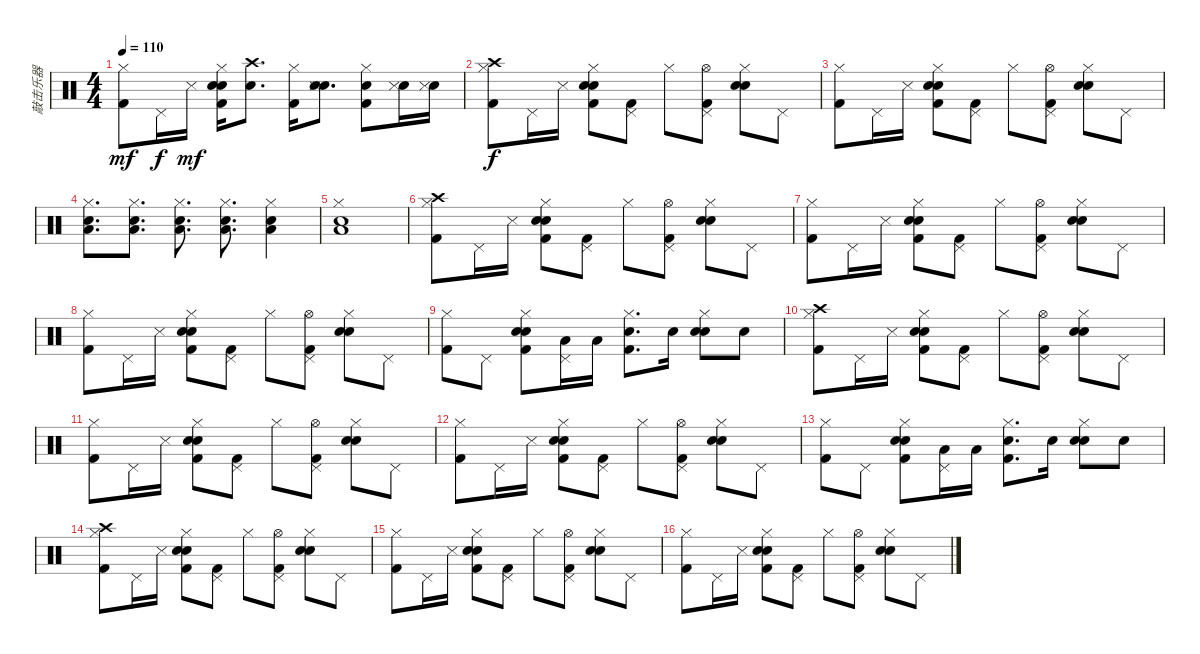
\track ("敲击乐器" "敲击乐器") {instrument percussion}
\staff {score}
\articulation defaults
\ts (4 4)
\tempo 110
\clef neutral
\ks c
("Hi-Hat (closed)" "Kick (hit) 2").8{dy mf} "Pedal Hi-Hat (hit)".16{dy f} "Snare (side stick) 3".16{dy mf} ("Hand Clap (hit)" "Electric Snare (hit)" "Hi-Hat (closed)" "Kick (hit) 2").16 ("Crash high (hit)" "Snare (hit) 2").8{d} ("Hi-Hat (closed)" "Kick (hit) 2").16 ("Hand Clap (hit)" "Snare (side stick) 3" "Electric Snare (hit)").8{d} ("Hi-Hat (closed)" "Electric Snare (hit)" "Kick (hit) 2").8 ("Hand Clap (hit)" "Snare (side stick) 3").16 ("Hand Clap (hit)" "Snare (side stick) 3").16 |
("Crash high (hit)" "Hi-Hat (closed)" "Kick (hit) 2").8{dy f} "Pedal Hi-Hat (hit)".16 "Snare (side stick) 3".16 ("Hand Clap (hit)" "Electric Snare (hit)" "Hi-Hat (closed)" "Kick (hit) 2").8 ("Pedal Hi-Hat (hit)" "Kick (hit) 2").8 "Hi-Hat (closed)".8 ("Hi-Hat (open)" "Pedal Hi-Hat (hit)" "Kick (hit) 2").8 ("Hand Clap (hit)" "Electric Snare (hit)" "Hi-Hat (closed)").8 "Pedal Hi-Hat (hit)".8 |
("Hi-Hat (closed)" "Kick (hit) 2").8 "Pedal Hi-Hat (hit)".16 "Snare (side stick) 3".16 ("Hand Clap (hit)" "Electric Snare (hit)" "Hi-Hat (closed)" "Kick (hit) 2").8 ("Pedal Hi-Hat (hit)" "Kick (hit) 2").8 "Hi-Hat (closed)".8 ("Hi-Hat (open)" "Pedal Hi-Hat (hit)" "Kick (hit) 2").8 ("Hand Clap (hit)" "Electric Snare (hit)" "Hi-Hat (closed)").8 "Pedal Hi-Hat (hit)".8 |
("Hi-Hat (closed)" "Electric Snare (hit)" "Low Tom (hit)").8{d} ("Hi-Hat (closed)" "Snare (hit) 2" "Low Tom (hit)").8{d} ("Hi-Hat (closed)" "Electric Snare (hit)" "Low Tom (hit)").8{d} ("Hi-Hat (closed)" "Snare (hit) 2" "Low Tom (hit)").8{d} ("Hi-Hat (closed)" "Electric Snare (hit)" "Low Tom (hit)").4 |
("Hi-Hat (closed)" "Electric Snare (hit)" "Low Tom (hit)").1 |
("Crash high (hit)" "Hi-Hat (closed)" "Kick (hit) 2").8 "Pedal Hi-Hat (hit)".16 "Snare (side stick) 3".16 ("Hand Clap (hit)" "Electric Snare (hit)" "Hi-Hat (closed)" "Kick (hit) 2").8 ("Pedal Hi-Hat (hit)" "Kick (hit) 2").8 "Hi-Hat (closed)".8 ("Hi-Hat (open)" "Pedal Hi-Hat (hit)" "Kick (hit) 2").8 ("Hand Clap (hit)" "Electric Snare (hit)" "Hi-Hat (closed)").8 "Pedal Hi-Hat (hit)".8 |
("Hi-Hat (closed)" "Kick (hit) 2").8 "Pedal Hi-Hat (hit)".16 "Snare (side stick) 3".16 ("Hand Clap (hit)" "Electric Snare (hit)" "Hi-Hat (closed)" "Kick (hit) 2").8 ("Pedal Hi-Hat (hit)" "Kick (hit) 2").8 "Hi-Hat (closed)".8 ("Hi-Hat (open)" "Pedal Hi-Hat (hit)" "Kick (hit) 2").8 ("Hand Clap (hit)" "Electric Snare (hit)" "Hi-Hat (closed)").8 "Pedal Hi-Hat (hit)".8 |
("Hi-Hat (closed)" "Kick (hit) 2").8 "Pedal Hi-Hat (hit)".16 "Snare (side stick) 3".16 ("Hand Clap (hit)" "Electric Snare (hit)" "Hi-Hat (closed)" "Kick (hit) 2").8 ("Pedal Hi-Hat (hit)" "Kick (hit) 2").8 "Hi-Hat (closed)".8 ("Hi-Hat (open)" "Pedal Hi-Hat (hit)" "Kick (hit) 2").8 ("Hand Clap (hit)" "Electric Snare (hit)" "Hi-Hat (closed)").8 "Pedal Hi-Hat (hit)".8 |
("Hi-Hat (closed)" "Kick (hit) 2").8 "Pedal Hi-Hat (hit)".8 ("Hand Clap (hit)" "Electric Snare (hit)" "Hi-Hat (closed)" "Kick (hit) 2").8 ("Pedal Hi-Hat (hit)" "Low Tom (hit)").16 "Low Tom (hit)".16 ("Electric Snare (hit)" "Hi-Hat (closed)" "Kick (hit) 2").8{d} "Snare (hit) 2".16 ("Hand Clap (hit)" "Electric Snare (hit)" "Hi-Hat (closed)").8 "Snare (hit) 2".8 |
("Crash high (hit)" "Hi-Hat (closed)" "Kick (hit) 2").8 "Pedal Hi-Hat (hit)".16 "Snare (side stick) 3".16 ("Hand Clap (hit)" "Electric Snare (hit)" "Hi-Hat (closed)" "Kick (hit) 2").8 ("Pedal Hi-Hat (hit)" "Kick (hit) 2").8 "Hi-Hat (closed)".8 ("Hi-Hat (open)" "Pedal Hi-Hat (hit)" "Kick (hit) 2").8 ("Hand Clap (hit)" "Electric Snare (hit)" "Hi-Hat (closed)").8 "Pedal Hi-Hat (hit)".8 |
("Hi-Hat (closed)" "Kick (hit) 2").8 "Pedal Hi-Hat (hit)".16 "Snare (side stick) 3".16 ("Hand Clap (hit)" "Electric Snare (hit)" "Hi-Hat (closed)" "Kick (hit) 2").8 ("Pedal Hi-Hat (hit)" "Kick (hit) 2").8 "Hi-Hat (closed)".8 ("Hi-Hat (open)" "Pedal Hi-Hat (hit)" "Kick (hit) 2").8 ("Hand Clap (hit)" "Electric Snare (hit)" "Hi-Hat (closed)").8 "Pedal Hi-Hat (hit)".8 |
("Hi-Hat (closed)" "Kick (hit) 2").8 "Pedal Hi-Hat (hit)".16 "Snare (side stick) 3".16 ("Hand Clap (hit)" "Electric Snare (hit)" "Hi-Hat (closed)" "Kick (hit) 2").8 ("Pedal Hi-Hat (hit)" "Kick (hit) 2").8 "Hi-Hat (closed)".8 ("Hi-Hat (open)" "Pedal Hi-Hat (hit)" "Kick (hit) 2").8 ("Hand Clap (hit)" "Electric Snare (hit)" "Hi-Hat (closed)").8 "Pedal Hi-Hat (hit)".8 |
("Hi-Hat (closed)" "Kick (hit) 2").8 "Pedal Hi-Hat (hit)".8 ("Hand Clap (hit)" "Electric Snare (hit)" "Hi-Hat (closed)" "Kick (hit) 2").8 ("Pedal Hi-Hat (hit)" "Low Tom (hit)").16 "Low Tom (hit)".16 ("Electric Snare (hit)" "Hi-Hat (closed)" "Kick (hit) 2").8{d} "Snare (hit) 2".16 ("Hand Clap (hit)" "Electric Snare (hit)" "Hi-Hat (closed)").8 "Snare (hit) 2".8 |
("Crash high (hit)" "Hi-Hat (closed)" "Kick (hit) 2").8 "Pedal Hi-Hat (hit)".16 "Snare (side stick) 3".16 ("Hand Clap (hit)" "Electric Snare (hit)" "Hi-Hat (closed)" "Kick (hit) 2").8 ("Pedal Hi-Hat (hit)" "Kick (hit) 2").8 "Hi-Hat (closed)".8 ("Hi-Hat (open)" "Pedal Hi-Hat (hit)" "Kick (hit) 2").8 ("Hand Clap (hit)" "Electric Snare (hit)" "Hi-Hat (closed)").8 "Pedal Hi-Hat (hit)".8 |
("Hi-Hat (closed)" "Kick (hit) 2").8 "Pedal Hi-Hat (hit)".16 "Snare (side stick) 3".16 ("Hand Clap (hit)" "Electric Snare (hit)" "Hi-Hat (closed)" "Kick (hit) 2").8 ("Pedal Hi-Hat (hit)" "Kick (hit) 2").8 "Hi-Hat (closed)".8 ("Hi-Hat (open)" "Pedal Hi-Hat (hit)" "Kick (hit) 2").8 ("Hand Clap (hit)" "Electric Snare (hit)" "Hi-Hat (closed)").8 "Pedal Hi-Hat (hit)".8 |
("Hi-Hat (closed)" "Kick (hit) 2").8 "Pedal Hi-Hat (hit)".16 "Snare (side stick) 3".16 ("Hand Clap (hit)" "Electric Snare (hit)" "Hi-Hat (closed)" "Kick (hit) 2").8 ("Pedal Hi-Hat (hit)" "Kick (hit) 2").8 "Hi-Hat (closed)".8 ("Hi-Hat (open)" "Pedal Hi-Hat (hit)" "Kick (hit) 2").8 ("Hand Clap (hit)" "Electric Snare (hit)" "Hi-Hat (closed)").8 "Pedal Hi-Hat (hit)".8
